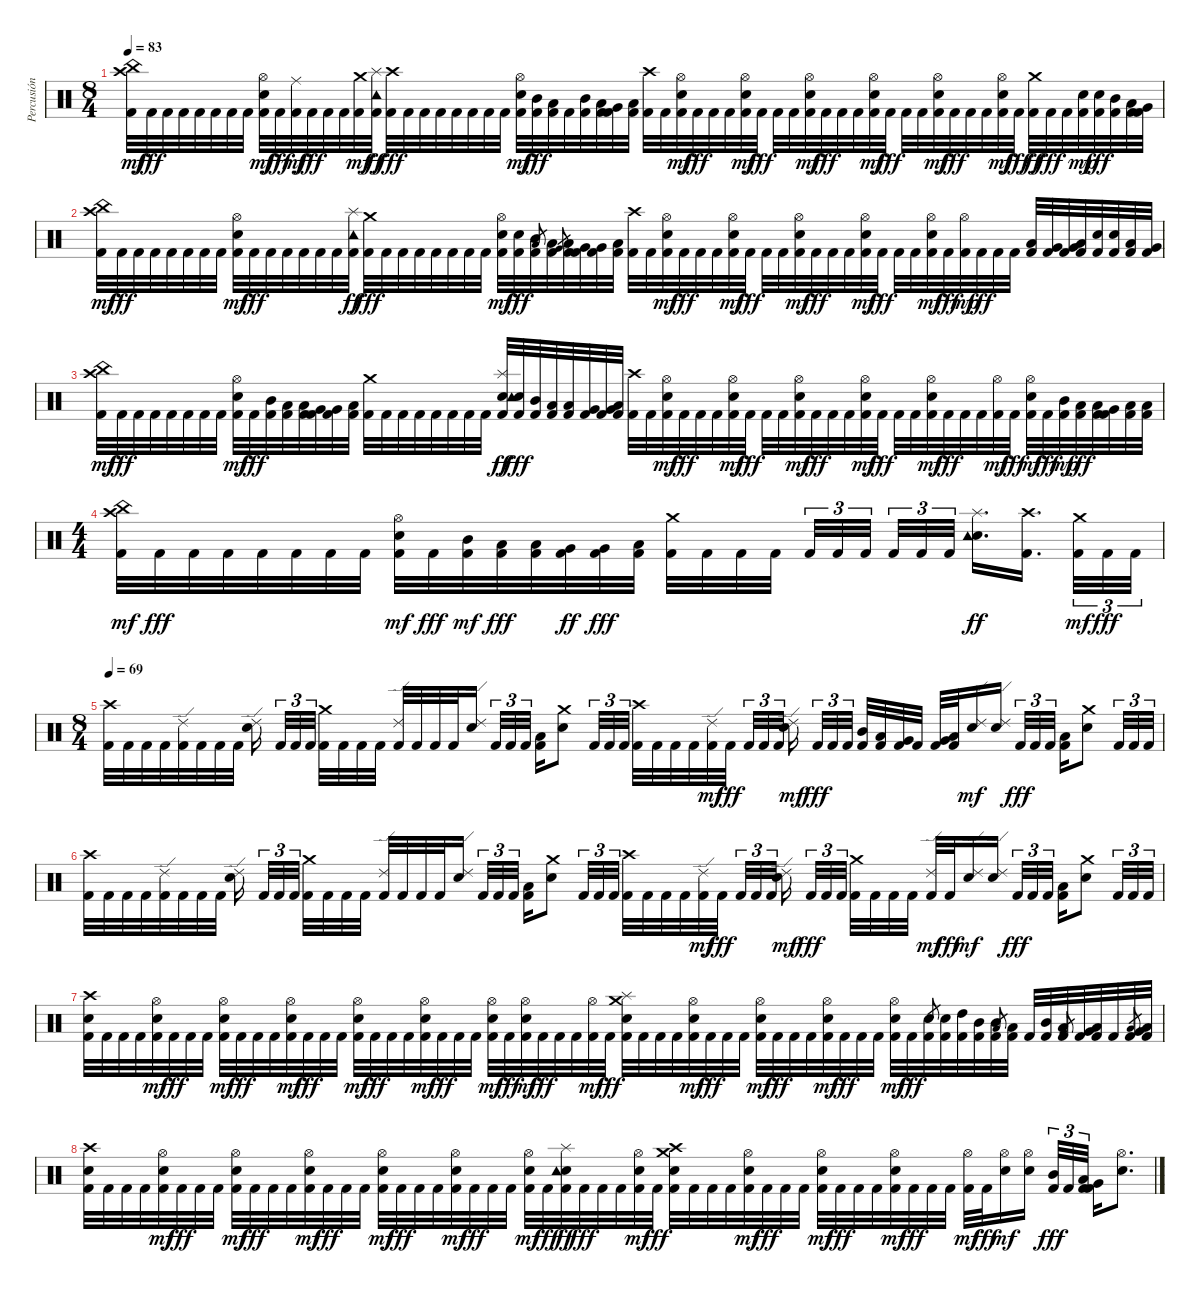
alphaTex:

\track ("Percusión" "Percusión") {instrument percussion}
\staff {score}
\articulation defaults
\ts (8 4)
\tempo 83
\clef neutral
\ks c
("Kick (hit) 2" "Crash high (hit)" "China (hit)").32{dy mf} "Kick (hit) 2".32{dy fff} "Kick (hit) 2".32 "Kick (hit) 2".32 "Kick (hit) 2".32 "Kick (hit) 2".32 "Kick (hit) 2".32 "Kick (hit) 2".32 ("Kick (hit) 2" "Electric Snare (hit)" "Hi-Hat (open)").32{dy mf} "Kick (hit) 2".32{dy fff} ("Kick (hit) 2" "Ride (middle)").32{dy mf} "Kick (hit) 2".32{dy fff} "Kick (hit) 2".32 "Kick (hit) 2".32 ("Kick (hit) 2" "Crash medium (hit)").32{dy mf} ("Kick (hit) 2" "Splash (hit)" "Tambourine (hit)").32{dy ff} ("Kick (hit) 2" "Crash high (hit)").32{dy fff} "Kick (hit) 2".32 "Kick (hit) 2".32 "Kick (hit) 2".32 "Kick (hit) 2".32 "Kick (hit) 2".32 "Kick (hit) 2".32 "Kick (hit) 2".32 ("Kick (hit) 2" "Electric Snare (hit)" "Hi-Hat (open)").32{dy mf} ("Kick (hit) 2" "Mid Tom (hit)").32{dy fff} ("Kick (hit) 2" "Low Tom (hit)").32 "Kick (hit) 2".32 ("Kick (hit) 2" "Mid Tom (hit)").32 ("Kick (hit) 2" "Low Tom (hit)").32 ("Kick (hit) 2" "Very Low Tom (hit)").32 ("Kick (hit) 2" "Low Floor Tom (hit)").32 ("Kick (hit) 2" "Crash high (hit)").32 "Kick (hit) 2".32 ("Kick (hit) 2" "Electric Snare (hit)" "Hi-Hat (open)").32{dy mf} "Kick (hit) 2".32{dy fff} "Kick (hit) 2".32 "Kick (hit) 2".32 ("Kick (hit) 2" "Electric Snare (hit)" "Hi-Hat (open)").32{dy mf} "Kick (hit) 2".32{dy fff} "Kick (hit) 2".32 "Kick (hit) 2".32 ("Kick (hit) 2" "Electric Snare (hit)" "Hi-Hat (open)").32{dy mf} "Kick (hit) 2".32{dy fff} "Kick (hit) 2".32 "Kick (hit) 2".32 ("Kick (hit) 2" "Electric Snare (hit)" "Hi-Hat (open)").32{dy mf} "Kick (hit) 2".32{dy fff} "Kick (hit) 2".32 "Kick (hit) 2".32 ("Kick (hit) 2" "Electric Snare (hit)" "Hi-Hat (open)").32{dy mf} "Kick (hit) 2".32{dy fff} "Kick (hit) 2".32 "Kick (hit) 2".32 ("Kick (hit) 2" "Electric Snare (hit)" "Hi-Hat (open)").32{dy mf} "Kick (hit) 2".32{dy fff} ("Kick (hit) 2" "Crash medium (hit)").32{dy ff} "Kick (hit) 2".32{dy fff} "Kick (hit) 2".32 ("Kick (hit) 2" "Electric Snare (hit)").32{dy mp} ("Kick (hit) 2" "Electric Snare (hit)").32{dy fff} ("Kick (hit) 2" "Mid Tom (hit)").32 ("Kick (hit) 2" "Low Tom (hit)").32 ("Kick (hit) 2" "Very Low Tom (hit)").32 |
("Kick (hit) 2" "Crash high (hit)" "China (hit)").32{dy mf} "Kick (hit) 2".32{dy fff} "Kick (hit) 2".32 "Kick (hit) 2".32 "Kick (hit) 2".32 "Kick (hit) 2".32 "Kick (hit) 2".32 "Kick (hit) 2".32 ("Kick (hit) 2" "Electric Snare (hit)" "Hi-Hat (open)").32{dy mf} "Kick (hit) 2".32{dy fff} "Kick (hit) 2".32 "Kick (hit) 2".32 "Kick (hit) 2".32 "Kick (hit) 2".32 "Kick (hit) 2".32 ("Kick (hit) 2" "Splash (hit)" "Tambourine (hit)").32{dy ff} ("Kick (hit) 2" "Crash medium (hit)").32{dy fff} "Kick (hit) 2".32 "Kick (hit) 2".32 "Kick (hit) 2".32 "Kick (hit) 2".32 "Kick (hit) 2".32 "Kick (hit) 2".32 "Kick (hit) 2".32 ("Kick (hit) 2" "Electric Snare (hit)" "Hi-Hat (open)").32{dy mf} ("Kick (hit) 2" "Electric Snare (hit)").32{dy fff} ("Kick (hit) 2" "Mid Tom (hit)").32 "Low Tom (hit)".8{gr} ("Kick (hit) 2" "Low Tom (hit)").32 ("Kick (hit) 2" "Low Tom (hit)").32 "Very Low Tom (hit)".8{gr} ("Kick (hit) 2" "Very Low Tom (hit)").32 ("Kick (hit) 2" "Very Low Tom (hit)").32 ("Kick (hit) 2" "Low Floor Tom (hit)").32 ("Kick (hit) 2" "Crash high (hit)").32 "Kick (hit) 2".32 ("Kick (hit) 2" "Electric Snare (hit)" "Hi-Hat (open)").32{dy mf} "Kick (hit) 2".32{dy fff} "Kick (hit) 2".32 "Kick (hit) 2".32 ("Kick (hit) 2" "Electric Snare (hit)" "Hi-Hat (open)").32{dy mf} "Kick (hit) 2".32{dy fff} "Kick (hit) 2".32 "Kick (hit) 2".32 ("Kick (hit) 2" "Electric Snare (hit)" "Hi-Hat (open)").32{dy mf} "Kick (hit) 2".32{dy fff} "Kick (hit) 2".32 "Kick (hit) 2".32 ("Kick (hit) 2" "Electric Snare (hit)" "Hi-Hat (open)").32{dy mf} "Kick (hit) 2".32{dy fff} "Kick (hit) 2".32 "Kick (hit) 2".32 ("Kick (hit) 2" "Electric Snare (hit)" "Hi-Hat (open)").32{dy mf} "Kick (hit) 2".32{dy fff} ("Kick (hit) 2" "Hi-Hat (open)").32{dy mp} "Kick (hit) 2".32{dy fff} "Kick (hit) 2".32 "Kick (hit) 2".32 ("Kick (hit) 2" "Low Tom (hit)").32 ("Kick (hit) 2" "Very Low Tom (hit)").32 ("Kick (hit) 2" "Very Low Tom (hit)").32 ("Kick (hit) 2" "Low Floor Tom (hit)").32 ("Kick (hit) 2" "Electric Snare (hit)").32 ("Kick (hit) 2" "Electric Snare (hit)").32 ("Kick (hit) 2" "Low Tom (hit)").32 ("Kick (hit) 2" "Very Low Tom (hit)").32 |
("Kick (hit) 2" "Crash high (hit)" "China (hit)").32{dy mf} "Kick (hit) 2".32{dy fff} "Kick (hit) 2".32 "Kick (hit) 2".32 "Kick (hit) 2".32 "Kick (hit) 2".32 "Kick (hit) 2".32 "Kick (hit) 2".32 ("Kick (hit) 2" "Electric Snare (hit)" "Hi-Hat (open)").32{dy mf} "Kick (hit) 2".32{dy fff} ("Kick (hit) 2" "Mid Tom (hit)").32 ("Kick (hit) 2" "Low Tom (hit)").32 ("Kick (hit) 2" "Low Tom (hit)").32 ("Kick (hit) 2" "Very Low Tom (hit)").32 ("Kick (hit) 2" "Very Low Tom (hit)").32 ("Kick (hit) 2" "Low Floor Tom (hit)").32 ("Kick (hit) 2" "Crash medium (hit)").32 "Kick (hit) 2".32 "Kick (hit) 2".32 "Kick (hit) 2".32 "Kick (hit) 2".32 "Kick (hit) 2".32 "Kick (hit) 2".32 "Kick (hit) 2".32 ("Kick (hit) 2" "Electric Snare (hit)" "Splash (hit)" "Tambourine (hit)").32{dy ff} ("Kick (hit) 2" "Electric Snare (hit)").32{dy fff} ("Kick (hit) 2" "Mid Tom (hit)").32 ("Kick (hit) 2" "Low Tom (hit)").32 ("Kick (hit) 2" "Low Tom (hit)").32 ("Kick (hit) 2" "Very Low Tom (hit)").32 ("Kick (hit) 2" "Very Low Tom (hit)").32 ("Kick (hit) 2" "Low Floor Tom (hit)").32 ("Kick (hit) 2" "Crash high (hit)").32 "Kick (hit) 2".32 ("Kick (hit) 2" "Electric Snare (hit)" "Hi-Hat (open)").32{dy mf} "Kick (hit) 2".32{dy fff} "Kick (hit) 2".32 "Kick (hit) 2".32 ("Kick (hit) 2" "Electric Snare (hit)" "Hi-Hat (open)").32{dy mf} "Kick (hit) 2".32{dy fff} "Kick (hit) 2".32 "Kick (hit) 2".32 ("Kick (hit) 2" "Electric Snare (hit)" "Hi-Hat (open)").32{dy mf} "Kick (hit) 2".32{dy fff} "Kick (hit) 2".32 "Kick (hit) 2".32 ("Kick (hit) 2" "Electric Snare (hit)" "Hi-Hat (open)").32{dy mf} "Kick (hit) 2".32{dy fff} "Kick (hit) 2".32 "Kick (hit) 2".32 ("Kick (hit) 2" "Electric Snare (hit)" "Hi-Hat (open)").32{dy mf} "Kick (hit) 2".32{dy fff} "Kick (hit) 2".32 "Kick (hit) 2".32 ("Kick (hit) 2" "Hi-Hat (open)").32{dy mf} "Kick (hit) 2".32{dy fff} ("Kick (hit) 2" "Electric Snare (hit)" "Hi-Hat (open)").32{dy mf} "Kick (hit) 2".32{dy fff} ("Kick (hit) 2" "Mid Tom (hit)").32{dy mp} ("Kick (hit) 2" "Low Tom (hit)").32{dy fff} ("Kick (hit) 2" "Low Tom (hit)").32 ("Kick (hit) 2" "Very Low Tom (hit)").32 ("Kick (hit) 2" "Low Floor Tom (hit)").32 ("Kick (hit) 2" "Low Floor Tom (hit)").32 |
\ts (4 4)
("Kick (hit) 2" "Crash high (hit)" "China (hit)").32{dy mf} "Kick (hit) 2".32{dy fff} "Kick (hit) 2".32 "Kick (hit) 2".32 "Kick (hit) 2".32 "Kick (hit) 2".32 "Kick (hit) 2".32 "Kick (hit) 2".32 ("Kick (hit) 2" "Electric Snare (hit)" "Hi-Hat (open)").32{dy mf} "Kick (hit) 2".32{dy fff} ("Kick (hit) 2" "Mid Tom (hit)").32{dy mf} ("Kick (hit) 2" "Low Tom (hit)").32{dy fff} ("Kick (hit) 2" "Low Tom (hit)").32 ("Kick (hit) 2" "Very Low Tom (hit)").32{dy ff} ("Kick (hit) 2" "Very Low Tom (hit)").32{dy fff} ("Kick (hit) 2" "Low Floor Tom (hit)").32 ("Kick (hit) 2" "Crash medium (hit)").32 "Kick (hit) 2".32 "Kick (hit) 2".32 "Kick (hit) 2".32{beam splitsecondary} "Kick (hit) 2".32{tu (3 2)} "Kick (hit) 2".32{tu (3 2)} "Kick (hit) 2".32{tu (3 2) beam splitsecondary} "Kick (hit) 2".32{tu (3 2)} "Kick (hit) 2".32{tu (3 2)} "Kick (hit) 2".32{tu (3 2)} ("Electric Snare (hit)" "Splash (hit)" "Tambourine (hit)").16{d dy ff} ("Kick (hit) 2" "Crash high (hit)").16{d beam splitsecondary} ("Kick (hit) 2" "Crash medium (hit)").32{tu (3 2) dy mf} "Kick (hit) 2".32{tu (3 2) dy fff} "Kick (hit) 2".32{tu (3 2)} |
\ts (8 4)
\tempo 69
("Kick (hit) 2" "Crash high (hit)").32 "Kick (hit) 2".32 "Kick (hit) 2".32 "Kick (hit) 2".32 ("Kick (hit) 2" "Ride (edge) 2").32 "Kick (hit) 2".32 "Kick (hit) 2".32 "Kick (hit) 2".32 ("Electric Snare (hit)" "Ride (edge) 2").16{beam splitsecondary} "Kick (hit) 2".32{tu (3 2)} "Kick (hit) 2".32{tu (3 2)} "Kick (hit) 2".32{tu (3 2) beam splitsecondary} ("Kick (hit) 2" "Crash medium (hit)").32 "Kick (hit) 2".32 "Kick (hit) 2".32 "Kick (hit) 2".32 ("Kick (hit) 2" "Ride (edge) 2").32 "Kick (hit) 2".32 "Kick (hit) 2".32 "Kick (hit) 2".32 ("Electric Snare (hit)" "Ride (edge) 2").16{beam splitsecondary} "Kick (hit) 2".32{tu (3 2)} "Kick (hit) 2".32{tu (3 2)} "Kick (hit) 2".32{tu (3 2)} ("Kick (hit) 2" "Low Floor Tom (hit)").16 ("Electric Snare (hit)" "Crash medium (hit)").8 "Kick (hit) 2".32{tu (3 2)} "Kick (hit) 2".32{tu (3 2)} "Kick (hit) 2".32{tu (3 2)} ("Kick (hit) 2" "Crash high (hit)").32 "Kick (hit) 2".32 "Kick (hit) 2".32 "Kick (hit) 2".32 ("Kick (hit) 2" "Ride (edge) 2").32{dy mf} "Kick (hit) 2".32{dy fff beam splitsecondary} "Kick (hit) 2".32{tu (3 2)} "Kick (hit) 2".32{tu (3 2)} "Kick (hit) 2".32{tu (3 2)} ("Electric Snare (hit)" "Ride (edge) 2").16{dy mf beam splitsecondary} "Kick (hit) 2".32{tu (3 2) dy fff} "Kick (hit) 2".32{tu (3 2)} "Kick (hit) 2".32{tu (3 2) beam splitsecondary} ("Kick (hit) 2" "Mid Tom (hit)").32 ("Kick (hit) 2" "Low Tom (hit)").32 ("Kick (hit) 2" "Very Low Tom (hit)").32 "Kick (hit) 2".32 ("Kick (hit) 2" "Very Low Tom (hit)").32 ("Kick (hit) 2" "Low Floor Tom (hit)").32 ("Electric Snare (hit)" "Ride (edge) 2").16{dy mf} ("Electric Snare (hit)" "Ride (edge) 2").16{beam splitsecondary} "Kick (hit) 2".32{tu (3 2) dy fff} "Kick (hit) 2".32{tu (3 2)} "Kick (hit) 2".32{tu (3 2)} ("Kick (hit) 2" "Low Floor Tom (hit)").16 ("Electric Snare (hit)" "Crash medium (hit)").8 "Kick (hit) 2".32{tu (3 2)} "Kick (hit) 2".32{tu (3 2)} "Kick (hit) 2".32{tu (3 2)} |
("Kick (hit) 2" "Crash high (hit)").32 "Kick (hit) 2".32 "Kick (hit) 2".32 "Kick (hit) 2".32 ("Kick (hit) 2" "Ride (edge) 2").32 "Kick (hit) 2".32 "Kick (hit) 2".32 "Kick (hit) 2".32 ("Electric Snare (hit)" "Ride (edge) 2").16{beam splitsecondary} "Kick (hit) 2".32{tu (3 2)} "Kick (hit) 2".32{tu (3 2)} "Kick (hit) 2".32{tu (3 2) beam splitsecondary} ("Kick (hit) 2" "Crash medium (hit)").32 "Kick (hit) 2".32 "Kick (hit) 2".32 "Kick (hit) 2".32 ("Kick (hit) 2" "Ride (edge) 2").32 "Kick (hit) 2".32 "Kick (hit) 2".32 "Kick (hit) 2".32 ("Electric Snare (hit)" "Ride (edge) 2").16{beam splitsecondary} "Kick (hit) 2".32{tu (3 2)} "Kick (hit) 2".32{tu (3 2)} "Kick (hit) 2".32{tu (3 2)} ("Kick (hit) 2" "Low Floor Tom (hit)").16 ("Electric Snare (hit)" "Crash medium (hit)").8 "Kick (hit) 2".32{tu (3 2)} "Kick (hit) 2".32{tu (3 2)} "Kick (hit) 2".32{tu (3 2)} ("Kick (hit) 2" "Crash high (hit)").32 "Kick (hit) 2".32 "Kick (hit) 2".32 "Kick (hit) 2".32 ("Kick (hit) 2" "Ride (edge) 2").32{dy mf} "Kick (hit) 2".32{dy fff beam splitsecondary} "Kick (hit) 2".32{tu (3 2)} "Kick (hit) 2".32{tu (3 2)} "Kick (hit) 2".32{tu (3 2)} ("Electric Snare (hit)" "Ride (edge) 2").16{dy mf beam splitsecondary} "Kick (hit) 2".32{tu (3 2) dy fff} "Kick (hit) 2".32{tu (3 2)} "Kick (hit) 2".32{tu (3 2) beam splitsecondary} ("Kick (hit) 2" "Crash medium (hit)").32 "Kick (hit) 2".32 "Kick (hit) 2".32 "Kick (hit) 2".32 ("Kick (hit) 2" "Ride (edge) 2").32{dy mf} "Kick (hit) 2".32{dy fff} ("Electric Snare (hit)" "Ride (edge) 2").16{dy mf} ("Electric Snare (hit)" "Ride (edge) 2").16{beam splitsecondary} "Kick (hit) 2".32{tu (3 2) dy fff} "Kick (hit) 2".32{tu (3 2)} "Kick (hit) 2".32{tu (3 2)} ("Kick (hit) 2" "Low Floor Tom (hit)").16 ("Electric Snare (hit)" "Crash medium (hit)").8 "Kick (hit) 2".32{tu (3 2)} "Kick (hit) 2".32{tu (3 2)} "Kick (hit) 2".32{tu (3 2)} |
("Kick (hit) 2" "Electric Snare (hit)" "Crash high (hit)").32 "Kick (hit) 2".32 "Kick (hit) 2".32 "Kick (hit) 2".32 ("Kick (hit) 2" "Electric Snare (hit)" "Hi-Hat (open)").32{dy mf} "Kick (hit) 2".32{dy fff} "Kick (hit) 2".32 "Kick (hit) 2".32 ("Kick (hit) 2" "Electric Snare (hit)" "Hi-Hat (open)").32{dy mf} "Kick (hit) 2".32{dy fff} "Kick (hit) 2".32 "Kick (hit) 2".32 ("Kick (hit) 2" "Electric Snare (hit)" "Hi-Hat (open)").32{dy mf} "Kick (hit) 2".32{dy fff} "Kick (hit) 2".32 "Kick (hit) 2".32 ("Kick (hit) 2" "Electric Snare (hit)" "Hi-Hat (open)").32{dy mf} "Kick (hit) 2".32{dy fff} "Kick (hit) 2".32 "Kick (hit) 2".32 ("Kick (hit) 2" "Electric Snare (hit)" "Hi-Hat (open)").32{dy mf} "Kick (hit) 2".32{dy fff} "Kick (hit) 2".32 "Kick (hit) 2".32 ("Kick (hit) 2" "Electric Snare (hit)" "Hi-Hat (open)").32{dy mf} "Kick (hit) 2".32{dy fff} ("Kick (hit) 2" "Electric Snare (hit)" "Hi-Hat (open)").32{dy mf} "Kick (hit) 2".32{dy fff} "Kick (hit) 2".32 "Kick (hit) 2".32 ("Kick (hit) 2" "Hi-Hat (open)").32{dy mf} "Kick (hit) 2".32{dy fff} ("Kick (hit) 2" "Electric Snare (hit)" "Splash (hit)" "Crash medium (hit)").32 "Kick (hit) 2".32 "Kick (hit) 2".32 "Kick (hit) 2".32 ("Kick (hit) 2" "Electric Snare (hit)" "Hi-Hat (open)").32{dy mf} "Kick (hit) 2".32{dy fff} "Kick (hit) 2".32 "Kick (hit) 2".32 ("Kick (hit) 2" "Electric Snare (hit)" "Hi-Hat (open)").32{dy mf} "Kick (hit) 2".32{dy fff} "Kick (hit) 2".32 "Kick (hit) 2".32 ("Kick (hit) 2" "Electric Snare (hit)" "Hi-Hat (open)").32{dy mf} "Kick (hit) 2".32{dy fff} "Kick (hit) 2".32 "Kick (hit) 2".32 ("Kick (hit) 2" "Electric Snare (hit)" "Hi-Hat (open)").32{dy mf} "Kick (hit) 2".32{dy fff} ("Kick (hit) 2" "Electric Snare (hit)").32 "Electric Snare (hit)".8{gr} ("Kick (hit) 2" "Electric Snare (hit)").32 ("Kick (hit) 2" "High Tom (hit)").32 ("Kick (hit) 2" "Mid Tom (hit)").32 ("Kick (hit) 2" "Mid Tom (hit)").32 "Low Tom (hit)".8{gr} ("Kick (hit) 2" "Low Tom (hit)").32 "Kick (hit) 2".32 ("Kick (hit) 2" "Mid Tom (hit)").32 ("Kick (hit) 2" "Low Tom (hit)").32 "Very Low Tom (hit)".8{gr} ("Kick (hit) 2" "Very Low Tom (hit)").32 ("Kick (hit) 2" "Low Tom (hit)").32 "Kick (hit) 2".32 ("Kick (hit) 2" "Very Low Tom (hit)").32 "Low Floor Tom (hit)".8{gr} ("Kick (hit) 2" "Low Floor Tom (hit)").32 |
("Kick (hit) 2" "Electric Snare (hit)" "Crash high (hit)").32 "Kick (hit) 2".32 "Kick (hit) 2".32 "Kick (hit) 2".32 ("Kick (hit) 2" "Electric Snare (hit)" "Hi-Hat (open)").32{dy mf} "Kick (hit) 2".32{dy fff} "Kick (hit) 2".32 "Kick (hit) 2".32 ("Kick (hit) 2" "Electric Snare (hit)" "Hi-Hat (open)").32{dy mf} "Kick (hit) 2".32{dy fff} "Kick (hit) 2".32 "Kick (hit) 2".32 ("Kick (hit) 2" "Electric Snare (hit)" "Hi-Hat (open)").32{dy mf} "Kick (hit) 2".32{dy fff} "Kick (hit) 2".32 "Kick (hit) 2".32 ("Kick (hit) 2" "Electric Snare (hit)" "Hi-Hat (open)").32{dy mf} "Kick (hit) 2".32{dy fff} "Kick (hit) 2".32 "Kick (hit) 2".32 ("Kick (hit) 2" "Electric Snare (hit)" "Hi-Hat (open)").32{dy mf} "Kick (hit) 2".32{dy fff} "Kick (hit) 2".32 "Kick (hit) 2".32 ("Kick (hit) 2" "Electric Snare (hit)" "Hi-Hat (open)").32{dy mf} "Kick (hit) 2".32{dy fff} ("Kick (hit) 2" "Electric Snare (hit)" "Splash (hit)" "Tambourine (hit)").32{dy ff} "Kick (hit) 2".32{dy fff} "Kick (hit) 2".32 "Kick (hit) 2".32 ("Kick (hit) 2" "Electric Snare (hit)" "Hi-Hat (open)").32{dy mf} "Kick (hit) 2".32{dy fff} ("Kick (hit) 2" "Electric Snare (hit)" "Crash high (hit)" "Crash medium (hit)").32 "Kick (hit) 2".32 "Kick (hit) 2".32 "Kick (hit) 2".32 ("Kick (hit) 2" "Electric Snare (hit)" "Hi-Hat (open)").32{dy mf} "Kick (hit) 2".32{dy fff} "Kick (hit) 2".32 "Kick (hit) 2".32 ("Kick (hit) 2" "Electric Snare (hit)" "Hi-Hat (open)").32{dy mf} "Kick (hit) 2".32{dy fff} "Kick (hit) 2".32 "Kick (hit) 2".32 ("Kick (hit) 2" "Electric Snare (hit)" "Hi-Hat (open)").32{dy mf} "Kick (hit) 2".32{dy fff} "Kick (hit) 2".32 "Kick (hit) 2".32 ("Kick (hit) 2" "Hi-Hat (open)").32{dy mf} "Kick (hit) 2".32{dy fff} ("Electric Snare (hit)" "Hi-Hat (open)").16{dy mf} ("Electric Snare (hit)" "Hi-Hat (open)").16{beam splitsecondary} ("Kick (hit) 2" "Mid Tom (hit)").32{tu (3 2) dy fff} "Kick (hit) 2".32{tu (3 2)} ("Kick (hit) 2" "Low Tom (hit)").32{tu (3 2)} ("Kick (hit) 2" "Very Low Tom (hit)").16 ("Electric Snare (hit)" "Hi-Hat (open)").8{d}
